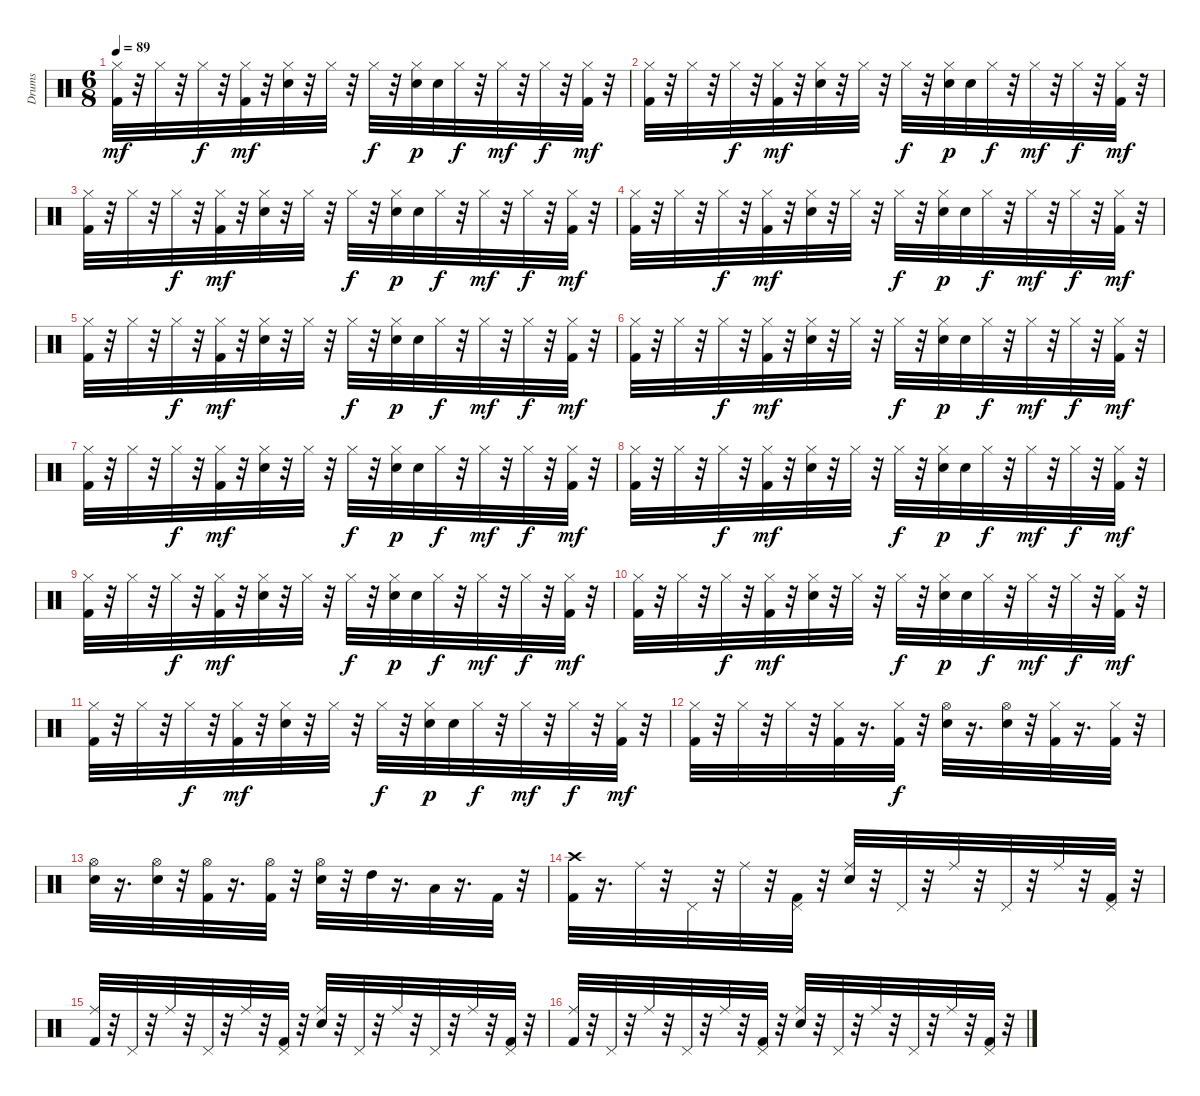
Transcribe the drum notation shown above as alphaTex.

\track ("Drums" "Drums") {instrument percussion}
\staff {score}
\articulation defaults
\ts (6 8)
\tempo 89
\clef neutral
\ks c
("Hi-Hat (closed)" "Kick (hit) 2").32{dy mf} r.32 "Hi-Hat (closed)".32 r.32 "Hi-Hat (closed)".32{dy f} r.32 ("Hi-Hat (closed)" "Kick (hit) 2").32{dy mf} r.32 ("Snare (hit) 2" "Hi-Hat (closed)").32 r.32 "Hi-Hat (closed)".32 r.32 "Hi-Hat (closed)".32{dy f} r.32 ("Hi-Hat (closed)" "Snare (hit) 2").32{dy p} "Snare (hit) 2".32 "Hi-Hat (closed)".32{dy f} r.32 "Hi-Hat (closed)".32{dy mf} r.32 "Hi-Hat (closed)".32{dy f} r.32 ("Hi-Hat (closed)" "Kick (hit) 2").32{dy mf} r.32 |
("Hi-Hat (closed)" "Kick (hit) 2").32 r.32 "Hi-Hat (closed)".32 r.32 "Hi-Hat (closed)".32{dy f} r.32 ("Hi-Hat (closed)" "Kick (hit) 2").32{dy mf} r.32 ("Snare (hit) 2" "Hi-Hat (closed)").32 r.32 "Hi-Hat (closed)".32 r.32 "Hi-Hat (closed)".32{dy f} r.32 ("Hi-Hat (closed)" "Snare (hit) 2").32{dy p} "Snare (hit) 2".32 "Hi-Hat (closed)".32{dy f} r.32 "Hi-Hat (closed)".32{dy mf} r.32 "Hi-Hat (closed)".32{dy f} r.32 ("Hi-Hat (closed)" "Kick (hit) 2").32{dy mf} r.32 |
("Hi-Hat (closed)" "Kick (hit) 2").32 r.32 "Hi-Hat (closed)".32 r.32 "Hi-Hat (closed)".32{dy f} r.32 ("Hi-Hat (closed)" "Kick (hit) 2").32{dy mf} r.32 ("Snare (hit) 2" "Hi-Hat (closed)").32 r.32 "Hi-Hat (closed)".32 r.32 "Hi-Hat (closed)".32{dy f} r.32 ("Hi-Hat (closed)" "Snare (hit) 2").32{dy p} "Snare (hit) 2".32 "Hi-Hat (closed)".32{dy f} r.32 "Hi-Hat (closed)".32{dy mf} r.32 "Hi-Hat (closed)".32{dy f} r.32 ("Hi-Hat (closed)" "Kick (hit) 2").32{dy mf} r.32 |
("Hi-Hat (closed)" "Kick (hit) 2").32 r.32 "Hi-Hat (closed)".32 r.32 "Hi-Hat (closed)".32{dy f} r.32 ("Hi-Hat (closed)" "Kick (hit) 2").32{dy mf} r.32 ("Snare (hit) 2" "Hi-Hat (closed)").32 r.32 "Hi-Hat (closed)".32 r.32 "Hi-Hat (closed)".32{dy f} r.32 ("Hi-Hat (closed)" "Snare (hit) 2").32{dy p} "Snare (hit) 2".32 "Hi-Hat (closed)".32{dy f} r.32 "Hi-Hat (closed)".32{dy mf} r.32 "Hi-Hat (closed)".32{dy f} r.32 ("Hi-Hat (closed)" "Kick (hit) 2").32{dy mf} r.32 |
("Hi-Hat (closed)" "Kick (hit) 2").32 r.32 "Hi-Hat (closed)".32 r.32 "Hi-Hat (closed)".32{dy f} r.32 ("Hi-Hat (closed)" "Kick (hit) 2").32{dy mf} r.32 ("Snare (hit) 2" "Hi-Hat (closed)").32 r.32 "Hi-Hat (closed)".32 r.32 "Hi-Hat (closed)".32{dy f} r.32 ("Hi-Hat (closed)" "Snare (hit) 2").32{dy p} "Snare (hit) 2".32 "Hi-Hat (closed)".32{dy f} r.32 "Hi-Hat (closed)".32{dy mf} r.32 "Hi-Hat (closed)".32{dy f} r.32 ("Hi-Hat (closed)" "Kick (hit) 2").32{dy mf} r.32 |
("Hi-Hat (closed)" "Kick (hit) 2").32 r.32 "Hi-Hat (closed)".32 r.32 "Hi-Hat (closed)".32{dy f} r.32 ("Hi-Hat (closed)" "Kick (hit) 2").32{dy mf} r.32 ("Snare (hit) 2" "Hi-Hat (closed)").32 r.32 "Hi-Hat (closed)".32 r.32 "Hi-Hat (closed)".32{dy f} r.32 ("Hi-Hat (closed)" "Snare (hit) 2").32{dy p} "Snare (hit) 2".32 "Hi-Hat (closed)".32{dy f} r.32 "Hi-Hat (closed)".32{dy mf} r.32 "Hi-Hat (closed)".32{dy f} r.32 ("Hi-Hat (closed)" "Kick (hit) 2").32{dy mf} r.32 |
("Hi-Hat (closed)" "Kick (hit) 2").32 r.32 "Hi-Hat (closed)".32 r.32 "Hi-Hat (closed)".32{dy f} r.32 ("Hi-Hat (closed)" "Kick (hit) 2").32{dy mf} r.32 ("Snare (hit) 2" "Hi-Hat (closed)").32 r.32 "Hi-Hat (closed)".32 r.32 "Hi-Hat (closed)".32{dy f} r.32 ("Hi-Hat (closed)" "Snare (hit) 2").32{dy p} "Snare (hit) 2".32 "Hi-Hat (closed)".32{dy f} r.32 "Hi-Hat (closed)".32{dy mf} r.32 "Hi-Hat (closed)".32{dy f} r.32 ("Hi-Hat (closed)" "Kick (hit) 2").32{dy mf} r.32 |
("Hi-Hat (closed)" "Kick (hit) 2").32 r.32 "Hi-Hat (closed)".32 r.32 "Hi-Hat (closed)".32{dy f} r.32 ("Hi-Hat (closed)" "Kick (hit) 2").32{dy mf} r.32 ("Snare (hit) 2" "Hi-Hat (closed)").32 r.32 "Hi-Hat (closed)".32 r.32 "Hi-Hat (closed)".32{dy f} r.32 ("Hi-Hat (closed)" "Snare (hit) 2").32{dy p} "Snare (hit) 2".32 "Hi-Hat (closed)".32{dy f} r.32 "Hi-Hat (closed)".32{dy mf} r.32 "Hi-Hat (closed)".32{dy f} r.32 ("Hi-Hat (closed)" "Kick (hit) 2").32{dy mf} r.32 |
("Hi-Hat (closed)" "Kick (hit) 2").32 r.32 "Hi-Hat (closed)".32 r.32 "Hi-Hat (closed)".32{dy f} r.32 ("Hi-Hat (closed)" "Kick (hit) 2").32{dy mf} r.32 ("Snare (hit) 2" "Hi-Hat (closed)").32 r.32 "Hi-Hat (closed)".32 r.32 "Hi-Hat (closed)".32{dy f} r.32 ("Hi-Hat (closed)" "Snare (hit) 2").32{dy p} "Snare (hit) 2".32 "Hi-Hat (closed)".32{dy f} r.32 "Hi-Hat (closed)".32{dy mf} r.32 "Hi-Hat (closed)".32{dy f} r.32 ("Hi-Hat (closed)" "Kick (hit) 2").32{dy mf} r.32 |
("Hi-Hat (closed)" "Kick (hit) 2").32 r.32 "Hi-Hat (closed)".32 r.32 "Hi-Hat (closed)".32{dy f} r.32 ("Hi-Hat (closed)" "Kick (hit) 2").32{dy mf} r.32 ("Snare (hit) 2" "Hi-Hat (closed)").32 r.32 "Hi-Hat (closed)".32 r.32 "Hi-Hat (closed)".32{dy f} r.32 ("Hi-Hat (closed)" "Snare (hit) 2").32{dy p} "Snare (hit) 2".32 "Hi-Hat (closed)".32{dy f} r.32 "Hi-Hat (closed)".32{dy mf} r.32 "Hi-Hat (closed)".32{dy f} r.32 ("Hi-Hat (closed)" "Kick (hit) 2").32{dy mf} r.32 |
("Hi-Hat (closed)" "Kick (hit) 2").32 r.32 "Hi-Hat (closed)".32 r.32 "Hi-Hat (closed)".32{dy f} r.32 ("Hi-Hat (closed)" "Kick (hit) 2").32{dy mf} r.32 ("Snare (hit) 2" "Hi-Hat (closed)").32 r.32 "Hi-Hat (closed)".32 r.32 "Hi-Hat (closed)".32{dy f} r.32 ("Hi-Hat (closed)" "Snare (hit) 2").32{dy p} "Snare (hit) 2".32 "Hi-Hat (closed)".32{dy f} r.32 "Hi-Hat (closed)".32{dy mf} r.32 "Hi-Hat (closed)".32{dy f} r.32 ("Hi-Hat (closed)" "Kick (hit) 2").32{dy mf} r.32 |
("Hi-Hat (closed)" "Kick (hit) 2").32 r.32 "Hi-Hat (closed)".32 r.32 "Hi-Hat (closed)".32 r.32 ("Hi-Hat (closed)" "Kick (hit) 2").32 r.16{d} ("Hi-Hat (closed)" "Kick (hit) 2").32{dy f} r.32 ("Hi-Hat (open)" "Snare (hit) 2").32 r.16{d} ("Hi-Hat (open)" "Snare (hit) 2").32 r.32 ("Hi-Hat (closed)" "Kick (hit) 2").32 r.16{d} ("Hi-Hat (closed)" "Kick (hit) 2").32 r.32 |
("Hi-Hat (open)" "Snare (hit) 2").32 r.16{d} ("Hi-Hat (open)" "Snare (hit) 2").32 r.32 ("Kick (hit) 2" "Hi-Hat (open)").32 r.16{d} ("Hi-Hat (open)" "Kick (hit) 2").32 r.32 ("Hi-Hat (open)" "Snare (hit) 2").32 r.32 "High Tom (hit)".32 r.16{d} "Low Tom (hit)".32 r.16{d} "Kick (hit) 2".32 r.32 |
("Kick (hit) 2" "Crash high (hit)").32 r.16{d} "Ride (middle)".32 r.32 "Pedal Hi-Hat (hit)".32 r.32 "Ride (middle)".32 r.32 ("Kick (hit) 2" "Pedal Hi-Hat (hit)").32 r.32 ("Snare (hit) 2" "Ride (middle)").32 r.32 "Pedal Hi-Hat (hit)".32 r.32 "Ride (middle)".32 r.32 "Pedal Hi-Hat (hit)".32 r.32 "Ride (middle)".32 r.32 ("Pedal Hi-Hat (hit)" "Kick (hit) 2").32 r.32 |
("Ride (middle)" "Kick (hit) 2").32 r.32 "Pedal Hi-Hat (hit)".32 r.32 "Ride (middle)".32 r.32 "Pedal Hi-Hat (hit)".32 r.32 "Ride (middle)".32 r.32 ("Kick (hit) 2" "Pedal Hi-Hat (hit)").32 r.32 ("Snare (hit) 2" "Ride (middle)").32 r.32 "Pedal Hi-Hat (hit)".32 r.32 "Ride (middle)".32 r.32 "Pedal Hi-Hat (hit)".32 r.32 "Ride (middle)".32 r.32 ("Kick (hit) 2" "Pedal Hi-Hat (hit)").32 r.32 |
("Ride (middle)" "Kick (hit) 2").32 r.32 "Pedal Hi-Hat (hit)".32 r.32 "Ride (middle)".32 r.32 "Pedal Hi-Hat (hit)".32 r.32 "Ride (middle)".32 r.32 ("Kick (hit) 2" "Pedal Hi-Hat (hit)").32 r.32 ("Snare (hit) 2" "Ride (middle)").32 r.32 "Pedal Hi-Hat (hit)".32 r.32 "Ride (middle)".32 r.32 "Pedal Hi-Hat (hit)".32 r.32 "Ride (middle)".32 r.32 ("Kick (hit) 2" "Pedal Hi-Hat (hit)").32 r.32
